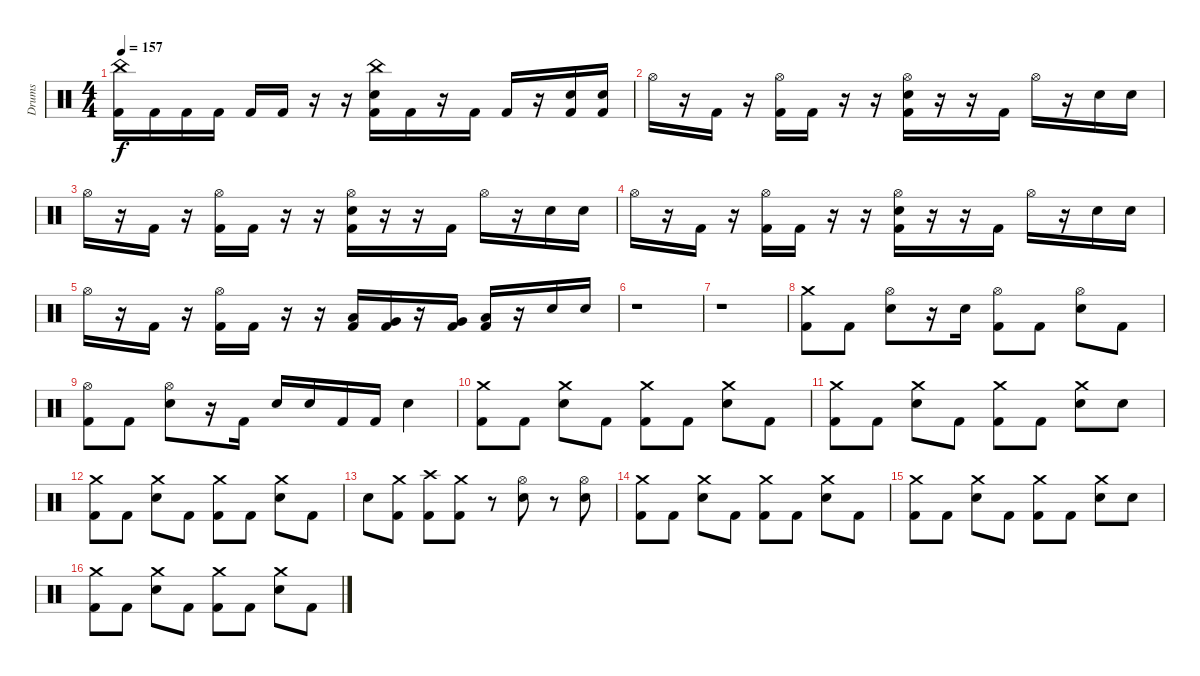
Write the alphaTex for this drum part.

\track ("Drums" "Drums") {instrument percussion}
\staff {score}
\articulation defaults
\ts (4 4)
\tempo 157
\clef neutral
\ks c
("China (hit)" "Kick (hit) 2").16{dy f} "Kick (hit) 2".16 "Kick (hit) 2".16 "Kick (hit) 2".16 "Kick (hit) 2".16 "Kick (hit) 2".16 r.16 r.16 ("China (hit)" "Electric Snare (hit)" "Kick (hit) 2").16 "Kick (hit) 2".16 r.16 "Kick (hit) 2".16 "Kick (hit) 2".16 r.16 ("Electric Snare (hit)" "Kick (hit) 2").16 ("Electric Snare (hit)" "Kick (hit) 2").16 |
"Hi-Hat (open)".16 r.16 "Kick (hit) 2".16 r.16 ("Hi-Hat (open)" "Kick (hit) 2").16 "Kick (hit) 2".16 r.16 r.16 ("Hi-Hat (open)" "Electric Snare (hit)" "Kick (hit) 2").16 r.16 r.16 "Kick (hit) 2".16 "Hi-Hat (open)".16 r.16 "Electric Snare (hit)".16 "Electric Snare (hit)".16 |
"Hi-Hat (open)".16 r.16 "Kick (hit) 2".16 r.16 ("Hi-Hat (open)" "Kick (hit) 2").16 "Kick (hit) 2".16 r.16 r.16 ("Hi-Hat (open)" "Electric Snare (hit)" "Kick (hit) 2").16 r.16 r.16 "Kick (hit) 2".16 "Hi-Hat (open)".16 r.16 "Electric Snare (hit)".16 "Electric Snare (hit)".16 |
"Hi-Hat (open)".16 r.16 "Kick (hit) 2".16 r.16 ("Hi-Hat (open)" "Kick (hit) 2").16 "Kick (hit) 2".16 r.16 r.16 ("Hi-Hat (open)" "Electric Snare (hit)" "Kick (hit) 2").16 r.16 r.16 "Kick (hit) 2".16 "Hi-Hat (open)".16 r.16 "Electric Snare (hit)".16 "Electric Snare (hit)".16 |
"Hi-Hat (open)".16 r.16 "Kick (hit) 2".16 r.16 ("Hi-Hat (open)" "Kick (hit) 2").16 "Kick (hit) 2".16 r.16 r.16 ("Low Tom (hit)" "Kick (hit) 2").16 ("Very Low Tom (hit)" "Kick (hit) 2").16 r.16 ("Very Low Tom (hit)" "Kick (hit) 2").16 ("Low Floor Tom (hit)" "Kick (hit) 2").16 r.16 "Electric Snare (hit)".16 "Electric Snare (hit)".16 |
r.1 |
r.1 |
("Crash medium (hit)" "Kick (hit) 2").8 "Kick (hit) 2".8 ("Hi-Hat (open)" "Electric Snare (hit)").8 r.16 "Electric Snare (hit)".16 ("Hi-Hat (open)" "Kick (hit) 2").8 "Kick (hit) 2".8 ("Hi-Hat (open)" "Electric Snare (hit)").8 "Kick (hit) 2".8 |
("Hi-Hat (open)" "Kick (hit) 2").8 "Kick (hit) 2".8 ("Hi-Hat (open)" "Electric Snare (hit)").8 r.16 "Kick (hit) 2".16 "Electric Snare (hit)".16 "Electric Snare (hit)".16 "Kick (hit) 2".16 "Kick (hit) 2".16 "Electric Snare (hit)".4 |
("Crash medium (hit)" "Kick (hit) 2").8 "Kick (hit) 2".8 ("Crash medium (hit)" "Electric Snare (hit)").8 "Kick (hit) 2".8 ("Crash medium (hit)" "Kick (hit) 2").8 "Kick (hit) 2".8 ("Crash medium (hit)" "Electric Snare (hit)").8 "Kick (hit) 2".8 |
("Crash medium (hit)" "Kick (hit) 2").8 "Kick (hit) 2".8 ("Crash medium (hit)" "Electric Snare (hit)").8 "Kick (hit) 2".8 ("Crash medium (hit)" "Kick (hit) 2").8 "Kick (hit) 2".8 ("Crash medium (hit)" "Electric Snare (hit)").8 "Electric Snare (hit)".8 |
("Crash medium (hit)" "Kick (hit) 2").8 "Kick (hit) 2".8 ("Crash medium (hit)" "Electric Snare (hit)").8 "Kick (hit) 2".8 ("Crash medium (hit)" "Kick (hit) 2").8 "Kick (hit) 2".8 ("Crash medium (hit)" "Electric Snare (hit)").8 "Kick (hit) 2".8 |
"Electric Snare (hit)".8 ("Crash medium (hit)" "Kick (hit) 2").8 ("Crash high (hit)" "Kick (hit) 2").8 ("Crash medium (hit)" "Kick (hit) 2").8 r.8 ("Hi-Hat (open)" "Electric Snare (hit)").8 r.8 ("Hi-Hat (open)" "Electric Snare (hit)").8 |
("Crash medium (hit)" "Kick (hit) 2").8 "Kick (hit) 2".8 ("Crash medium (hit)" "Electric Snare (hit)").8 "Kick (hit) 2".8 ("Crash medium (hit)" "Kick (hit) 2").8 "Kick (hit) 2".8 ("Crash medium (hit)" "Electric Snare (hit)").8 "Kick (hit) 2".8 |
("Crash medium (hit)" "Kick (hit) 2").8 "Kick (hit) 2".8 ("Crash medium (hit)" "Electric Snare (hit)").8 "Kick (hit) 2".8 ("Crash medium (hit)" "Kick (hit) 2").8 "Kick (hit) 2".8 ("Crash medium (hit)" "Electric Snare (hit)").8 "Electric Snare (hit)".8 |
("Crash medium (hit)" "Kick (hit) 2").8 "Kick (hit) 2".8 ("Crash medium (hit)" "Electric Snare (hit)").8 "Kick (hit) 2".8 ("Crash medium (hit)" "Kick (hit) 2").8 "Kick (hit) 2".8 ("Crash medium (hit)" "Electric Snare (hit)").8 "Kick (hit) 2".8
